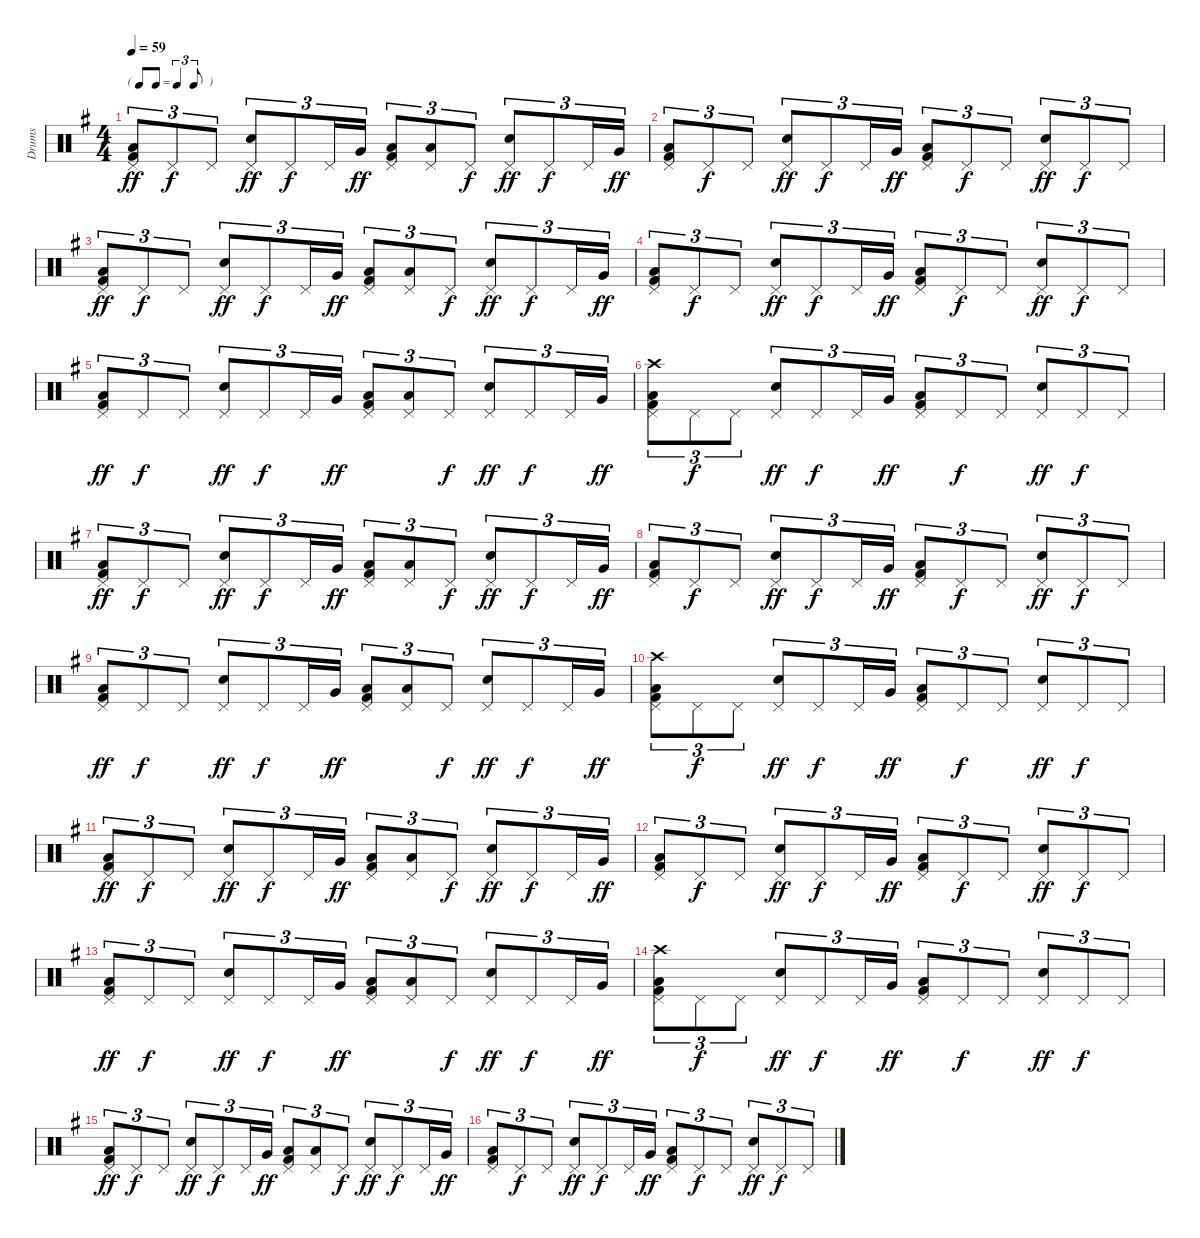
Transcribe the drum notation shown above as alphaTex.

\track ("Drums" "Drums") {instrument percussion}
\staff {score}
\articulation defaults
\ts (4 4)
\tf triplet8th
\tempo 59
\clef neutral
\ks g
("Pedal Hi-Hat (hit)" "Low Floor Tom (hit)" "Kick (hit) 2").8{tu (3 2) dy ff} "Pedal Hi-Hat (hit)".8{tu (3 2) dy f} "Pedal Hi-Hat (hit)".8{tu (3 2)} ("Pedal Hi-Hat (hit)" "Electric Snare (hit)").8{tu (3 2) dy ff} "Pedal Hi-Hat (hit)".8{tu (3 2) dy f} "Pedal Hi-Hat (hit)".16{tu (3 2)} "Very Low Tom (hit)".16{tu (3 2) dy ff} ("Pedal Hi-Hat (hit)" "Low Floor Tom (hit)" "Kick (hit) 2").8{tu (3 2)} ("Pedal Hi-Hat (hit)" "Low Floor Tom (hit)").8{tu (3 2)} "Pedal Hi-Hat (hit)".8{tu (3 2) dy f} ("Pedal Hi-Hat (hit)" "Electric Snare (hit)").8{tu (3 2) dy ff} "Pedal Hi-Hat (hit)".8{tu (3 2) dy f} "Pedal Hi-Hat (hit)".16{tu (3 2)} "Very Low Tom (hit)".16{tu (3 2) dy ff} |
("Pedal Hi-Hat (hit)" "Low Floor Tom (hit)" "Kick (hit) 2").8{tu (3 2)} "Pedal Hi-Hat (hit)".8{tu (3 2) dy f} "Pedal Hi-Hat (hit)".8{tu (3 2)} ("Pedal Hi-Hat (hit)" "Electric Snare (hit)").8{tu (3 2) dy ff} "Pedal Hi-Hat (hit)".8{tu (3 2) dy f} "Pedal Hi-Hat (hit)".16{tu (3 2)} "Very Low Tom (hit)".16{tu (3 2) dy ff} ("Pedal Hi-Hat (hit)" "Low Floor Tom (hit)" "Kick (hit) 2").8{tu (3 2)} "Pedal Hi-Hat (hit)".8{tu (3 2) dy f} "Pedal Hi-Hat (hit)".8{tu (3 2)} ("Pedal Hi-Hat (hit)" "Electric Snare (hit)").8{tu (3 2) dy ff} "Pedal Hi-Hat (hit)".8{tu (3 2) dy f} "Pedal Hi-Hat (hit)".8{tu (3 2)} |
("Pedal Hi-Hat (hit)" "Low Floor Tom (hit)" "Kick (hit) 2").8{tu (3 2) dy ff} "Pedal Hi-Hat (hit)".8{tu (3 2) dy f} "Pedal Hi-Hat (hit)".8{tu (3 2)} ("Pedal Hi-Hat (hit)" "Electric Snare (hit)").8{tu (3 2) dy ff} "Pedal Hi-Hat (hit)".8{tu (3 2) dy f} "Pedal Hi-Hat (hit)".16{tu (3 2)} "Very Low Tom (hit)".16{tu (3 2) dy ff} ("Pedal Hi-Hat (hit)" "Low Floor Tom (hit)" "Kick (hit) 2").8{tu (3 2)} ("Pedal Hi-Hat (hit)" "Low Floor Tom (hit)").8{tu (3 2)} "Pedal Hi-Hat (hit)".8{tu (3 2) dy f} ("Pedal Hi-Hat (hit)" "Electric Snare (hit)").8{tu (3 2) dy ff} "Pedal Hi-Hat (hit)".8{tu (3 2) dy f} "Pedal Hi-Hat (hit)".16{tu (3 2)} "Very Low Tom (hit)".16{tu (3 2) dy ff} |
("Pedal Hi-Hat (hit)" "Low Floor Tom (hit)" "Kick (hit) 2").8{tu (3 2)} "Pedal Hi-Hat (hit)".8{tu (3 2) dy f} "Pedal Hi-Hat (hit)".8{tu (3 2)} ("Pedal Hi-Hat (hit)" "Electric Snare (hit)").8{tu (3 2) dy ff} "Pedal Hi-Hat (hit)".8{tu (3 2) dy f} "Pedal Hi-Hat (hit)".16{tu (3 2)} "Very Low Tom (hit)".16{tu (3 2) dy ff} ("Pedal Hi-Hat (hit)" "Low Floor Tom (hit)" "Kick (hit) 2").8{tu (3 2)} "Pedal Hi-Hat (hit)".8{tu (3 2) dy f} "Pedal Hi-Hat (hit)".8{tu (3 2)} ("Pedal Hi-Hat (hit)" "Electric Snare (hit)").8{tu (3 2) dy ff} "Pedal Hi-Hat (hit)".8{tu (3 2) dy f} "Pedal Hi-Hat (hit)".8{tu (3 2)} |
("Pedal Hi-Hat (hit)" "Low Floor Tom (hit)" "Kick (hit) 2").8{tu (3 2) dy ff} "Pedal Hi-Hat (hit)".8{tu (3 2) dy f} "Pedal Hi-Hat (hit)".8{tu (3 2)} ("Pedal Hi-Hat (hit)" "Electric Snare (hit)").8{tu (3 2) dy ff} "Pedal Hi-Hat (hit)".8{tu (3 2) dy f} "Pedal Hi-Hat (hit)".16{tu (3 2)} "Very Low Tom (hit)".16{tu (3 2) dy ff} ("Pedal Hi-Hat (hit)" "Low Floor Tom (hit)" "Kick (hit) 2").8{tu (3 2)} ("Pedal Hi-Hat (hit)" "Low Floor Tom (hit)").8{tu (3 2)} "Pedal Hi-Hat (hit)".8{tu (3 2) dy f} ("Pedal Hi-Hat (hit)" "Electric Snare (hit)").8{tu (3 2) dy ff} "Pedal Hi-Hat (hit)".8{tu (3 2) dy f} "Pedal Hi-Hat (hit)".16{tu (3 2)} "Very Low Tom (hit)".16{tu (3 2) dy ff} |
("Pedal Hi-Hat (hit)" "Crash high (hit)" "Low Floor Tom (hit)" "Kick (hit) 2").8{tu (3 2)} "Pedal Hi-Hat (hit)".8{tu (3 2) dy f} "Pedal Hi-Hat (hit)".8{tu (3 2)} ("Pedal Hi-Hat (hit)" "Electric Snare (hit)").8{tu (3 2) dy ff} "Pedal Hi-Hat (hit)".8{tu (3 2) dy f} "Pedal Hi-Hat (hit)".16{tu (3 2)} "Very Low Tom (hit)".16{tu (3 2) dy ff} ("Pedal Hi-Hat (hit)" "Low Floor Tom (hit)" "Kick (hit) 2").8{tu (3 2)} "Pedal Hi-Hat (hit)".8{tu (3 2) dy f} "Pedal Hi-Hat (hit)".8{tu (3 2)} ("Pedal Hi-Hat (hit)" "Electric Snare (hit)").8{tu (3 2) dy ff} "Pedal Hi-Hat (hit)".8{tu (3 2) dy f} "Pedal Hi-Hat (hit)".8{tu (3 2)} |
("Pedal Hi-Hat (hit)" "Low Floor Tom (hit)" "Kick (hit) 2").8{tu (3 2) dy ff} "Pedal Hi-Hat (hit)".8{tu (3 2) dy f} "Pedal Hi-Hat (hit)".8{tu (3 2)} ("Pedal Hi-Hat (hit)" "Electric Snare (hit)").8{tu (3 2) dy ff} "Pedal Hi-Hat (hit)".8{tu (3 2) dy f} "Pedal Hi-Hat (hit)".16{tu (3 2)} "Very Low Tom (hit)".16{tu (3 2) dy ff} ("Pedal Hi-Hat (hit)" "Low Floor Tom (hit)" "Kick (hit) 2").8{tu (3 2)} ("Pedal Hi-Hat (hit)" "Low Floor Tom (hit)").8{tu (3 2)} "Pedal Hi-Hat (hit)".8{tu (3 2) dy f} ("Pedal Hi-Hat (hit)" "Electric Snare (hit)").8{tu (3 2) dy ff} "Pedal Hi-Hat (hit)".8{tu (3 2) dy f} "Pedal Hi-Hat (hit)".16{tu (3 2)} "Very Low Tom (hit)".16{tu (3 2) dy ff} |
("Pedal Hi-Hat (hit)" "Low Floor Tom (hit)" "Kick (hit) 2").8{tu (3 2)} "Pedal Hi-Hat (hit)".8{tu (3 2) dy f} "Pedal Hi-Hat (hit)".8{tu (3 2)} ("Pedal Hi-Hat (hit)" "Electric Snare (hit)").8{tu (3 2) dy ff} "Pedal Hi-Hat (hit)".8{tu (3 2) dy f} "Pedal Hi-Hat (hit)".16{tu (3 2)} "Very Low Tom (hit)".16{tu (3 2) dy ff} ("Pedal Hi-Hat (hit)" "Low Floor Tom (hit)" "Kick (hit) 2").8{tu (3 2)} "Pedal Hi-Hat (hit)".8{tu (3 2) dy f} "Pedal Hi-Hat (hit)".8{tu (3 2)} ("Pedal Hi-Hat (hit)" "Electric Snare (hit)").8{tu (3 2) dy ff} "Pedal Hi-Hat (hit)".8{tu (3 2) dy f} "Pedal Hi-Hat (hit)".8{tu (3 2)} |
("Pedal Hi-Hat (hit)" "Low Floor Tom (hit)" "Kick (hit) 2").8{tu (3 2) dy ff} "Pedal Hi-Hat (hit)".8{tu (3 2) dy f} "Pedal Hi-Hat (hit)".8{tu (3 2)} ("Pedal Hi-Hat (hit)" "Electric Snare (hit)").8{tu (3 2) dy ff} "Pedal Hi-Hat (hit)".8{tu (3 2) dy f} "Pedal Hi-Hat (hit)".16{tu (3 2)} "Very Low Tom (hit)".16{tu (3 2) dy ff} ("Pedal Hi-Hat (hit)" "Low Floor Tom (hit)" "Kick (hit) 2").8{tu (3 2)} ("Pedal Hi-Hat (hit)" "Low Floor Tom (hit)").8{tu (3 2)} "Pedal Hi-Hat (hit)".8{tu (3 2) dy f} ("Pedal Hi-Hat (hit)" "Electric Snare (hit)").8{tu (3 2) dy ff} "Pedal Hi-Hat (hit)".8{tu (3 2) dy f} "Pedal Hi-Hat (hit)".16{tu (3 2)} "Very Low Tom (hit)".16{tu (3 2) dy ff} |
("Pedal Hi-Hat (hit)" "Crash high (hit)" "Low Floor Tom (hit)" "Kick (hit) 2").8{tu (3 2)} "Pedal Hi-Hat (hit)".8{tu (3 2) dy f} "Pedal Hi-Hat (hit)".8{tu (3 2)} ("Pedal Hi-Hat (hit)" "Electric Snare (hit)").8{tu (3 2) dy ff} "Pedal Hi-Hat (hit)".8{tu (3 2) dy f} "Pedal Hi-Hat (hit)".16{tu (3 2)} "Very Low Tom (hit)".16{tu (3 2) dy ff} ("Pedal Hi-Hat (hit)" "Low Floor Tom (hit)" "Kick (hit) 2").8{tu (3 2)} "Pedal Hi-Hat (hit)".8{tu (3 2) dy f} "Pedal Hi-Hat (hit)".8{tu (3 2)} ("Pedal Hi-Hat (hit)" "Electric Snare (hit)").8{tu (3 2) dy ff} "Pedal Hi-Hat (hit)".8{tu (3 2) dy f} "Pedal Hi-Hat (hit)".8{tu (3 2)} |
("Pedal Hi-Hat (hit)" "Low Floor Tom (hit)" "Kick (hit) 2").8{tu (3 2) dy ff} "Pedal Hi-Hat (hit)".8{tu (3 2) dy f} "Pedal Hi-Hat (hit)".8{tu (3 2)} ("Pedal Hi-Hat (hit)" "Electric Snare (hit)").8{tu (3 2) dy ff} "Pedal Hi-Hat (hit)".8{tu (3 2) dy f} "Pedal Hi-Hat (hit)".16{tu (3 2)} "Very Low Tom (hit)".16{tu (3 2) dy ff} ("Pedal Hi-Hat (hit)" "Low Floor Tom (hit)" "Kick (hit) 2").8{tu (3 2)} ("Pedal Hi-Hat (hit)" "Low Floor Tom (hit)").8{tu (3 2)} "Pedal Hi-Hat (hit)".8{tu (3 2) dy f} ("Pedal Hi-Hat (hit)" "Electric Snare (hit)").8{tu (3 2) dy ff} "Pedal Hi-Hat (hit)".8{tu (3 2) dy f} "Pedal Hi-Hat (hit)".16{tu (3 2)} "Very Low Tom (hit)".16{tu (3 2) dy ff} |
("Pedal Hi-Hat (hit)" "Low Floor Tom (hit)" "Kick (hit) 2").8{tu (3 2)} "Pedal Hi-Hat (hit)".8{tu (3 2) dy f} "Pedal Hi-Hat (hit)".8{tu (3 2)} ("Pedal Hi-Hat (hit)" "Electric Snare (hit)").8{tu (3 2) dy ff} "Pedal Hi-Hat (hit)".8{tu (3 2) dy f} "Pedal Hi-Hat (hit)".16{tu (3 2)} "Very Low Tom (hit)".16{tu (3 2) dy ff} ("Pedal Hi-Hat (hit)" "Low Floor Tom (hit)" "Kick (hit) 2").8{tu (3 2)} "Pedal Hi-Hat (hit)".8{tu (3 2) dy f} "Pedal Hi-Hat (hit)".8{tu (3 2)} ("Pedal Hi-Hat (hit)" "Electric Snare (hit)").8{tu (3 2) dy ff} "Pedal Hi-Hat (hit)".8{tu (3 2) dy f} "Pedal Hi-Hat (hit)".8{tu (3 2)} |
("Pedal Hi-Hat (hit)" "Low Floor Tom (hit)" "Kick (hit) 2").8{tu (3 2) dy ff} "Pedal Hi-Hat (hit)".8{tu (3 2) dy f} "Pedal Hi-Hat (hit)".8{tu (3 2)} ("Pedal Hi-Hat (hit)" "Electric Snare (hit)").8{tu (3 2) dy ff} "Pedal Hi-Hat (hit)".8{tu (3 2) dy f} "Pedal Hi-Hat (hit)".16{tu (3 2)} "Very Low Tom (hit)".16{tu (3 2) dy ff} ("Pedal Hi-Hat (hit)" "Low Floor Tom (hit)" "Kick (hit) 2").8{tu (3 2)} ("Pedal Hi-Hat (hit)" "Low Floor Tom (hit)").8{tu (3 2)} "Pedal Hi-Hat (hit)".8{tu (3 2) dy f} ("Pedal Hi-Hat (hit)" "Electric Snare (hit)").8{tu (3 2) dy ff} "Pedal Hi-Hat (hit)".8{tu (3 2) dy f} "Pedal Hi-Hat (hit)".16{tu (3 2)} "Very Low Tom (hit)".16{tu (3 2) dy ff} |
("Pedal Hi-Hat (hit)" "Crash high (hit)" "Low Floor Tom (hit)" "Kick (hit) 2").8{tu (3 2)} "Pedal Hi-Hat (hit)".8{tu (3 2) dy f} "Pedal Hi-Hat (hit)".8{tu (3 2)} ("Pedal Hi-Hat (hit)" "Electric Snare (hit)").8{tu (3 2) dy ff} "Pedal Hi-Hat (hit)".8{tu (3 2) dy f} "Pedal Hi-Hat (hit)".16{tu (3 2)} "Very Low Tom (hit)".16{tu (3 2) dy ff} ("Pedal Hi-Hat (hit)" "Low Floor Tom (hit)" "Kick (hit) 2").8{tu (3 2)} "Pedal Hi-Hat (hit)".8{tu (3 2) dy f} "Pedal Hi-Hat (hit)".8{tu (3 2)} ("Pedal Hi-Hat (hit)" "Electric Snare (hit)").8{tu (3 2) dy ff} "Pedal Hi-Hat (hit)".8{tu (3 2) dy f} "Pedal Hi-Hat (hit)".8{tu (3 2)} |
("Pedal Hi-Hat (hit)" "Low Floor Tom (hit)" "Kick (hit) 2").8{tu (3 2) dy ff} "Pedal Hi-Hat (hit)".8{tu (3 2) dy f} "Pedal Hi-Hat (hit)".8{tu (3 2)} ("Pedal Hi-Hat (hit)" "Electric Snare (hit)").8{tu (3 2) dy ff} "Pedal Hi-Hat (hit)".8{tu (3 2) dy f} "Pedal Hi-Hat (hit)".16{tu (3 2)} "Very Low Tom (hit)".16{tu (3 2) dy ff} ("Pedal Hi-Hat (hit)" "Low Floor Tom (hit)" "Kick (hit) 2").8{tu (3 2)} ("Pedal Hi-Hat (hit)" "Low Floor Tom (hit)").8{tu (3 2)} "Pedal Hi-Hat (hit)".8{tu (3 2) dy f} ("Pedal Hi-Hat (hit)" "Electric Snare (hit)").8{tu (3 2) dy ff} "Pedal Hi-Hat (hit)".8{tu (3 2) dy f} "Pedal Hi-Hat (hit)".16{tu (3 2)} "Very Low Tom (hit)".16{tu (3 2) dy ff} |
("Pedal Hi-Hat (hit)" "Low Floor Tom (hit)" "Kick (hit) 2").8{tu (3 2)} "Pedal Hi-Hat (hit)".8{tu (3 2) dy f} "Pedal Hi-Hat (hit)".8{tu (3 2)} ("Pedal Hi-Hat (hit)" "Electric Snare (hit)").8{tu (3 2) dy ff} "Pedal Hi-Hat (hit)".8{tu (3 2) dy f} "Pedal Hi-Hat (hit)".16{tu (3 2)} "Very Low Tom (hit)".16{tu (3 2) dy ff} ("Pedal Hi-Hat (hit)" "Low Floor Tom (hit)" "Kick (hit) 2").8{tu (3 2)} "Pedal Hi-Hat (hit)".8{tu (3 2) dy f} "Pedal Hi-Hat (hit)".8{tu (3 2)} ("Pedal Hi-Hat (hit)" "Electric Snare (hit)").8{tu (3 2) dy ff} "Pedal Hi-Hat (hit)".8{tu (3 2) dy f} "Pedal Hi-Hat (hit)".8{tu (3 2)}
